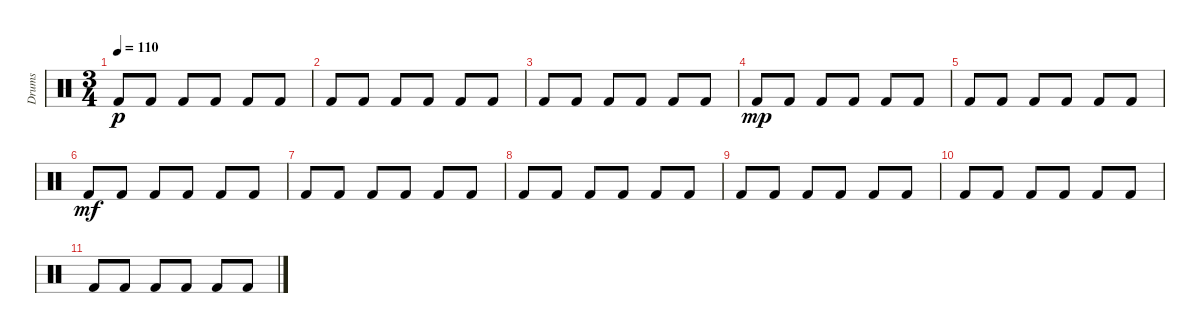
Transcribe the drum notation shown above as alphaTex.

\track ("Drums" "Drums") {instrument percussion}
\staff {score}
\articulation defaults
\ts (3 4)
\tempo 110
\clef neutral
\ks c "Kick (hit) 2".8{dy p} "Kick (hit) 2".8 "Kick (hit) 2".8 "Kick (hit) 2".8 "Kick (hit) 2".8 "Kick (hit) 2".8
|
"Kick (hit) 2".8 "Kick (hit) 2".8 "Kick (hit) 2".8 "Kick (hit) 2".8 "Kick (hit) 2".8 "Kick (hit) 2".8 |
"Kick (hit) 2".8 "Kick (hit) 2".8 "Kick (hit) 2".8 "Kick (hit) 2".8 "Kick (hit) 2".8 "Kick (hit) 2".8 |
"Kick (hit) 2".8{dy mp} "Kick (hit) 2".8 "Kick (hit) 2".8 "Kick (hit) 2".8 "Kick (hit) 2".8 "Kick (hit) 2".8 |
"Kick (hit) 2".8 "Kick (hit) 2".8 "Kick (hit) 2".8 "Kick (hit) 2".8 "Kick (hit) 2".8 "Kick (hit) 2".8 |
"Kick (hit) 2".8{dy mf} "Kick (hit) 2".8 "Kick (hit) 2".8 "Kick (hit) 2".8 "Kick (hit) 2".8 "Kick (hit) 2".8 |
"Kick (hit) 2".8 "Kick (hit) 2".8 "Kick (hit) 2".8 "Kick (hit) 2".8 "Kick (hit) 2".8 "Kick (hit) 2".8 |
"Kick (hit) 2".8 "Kick (hit) 2".8 "Kick (hit) 2".8 "Kick (hit) 2".8 "Kick (hit) 2".8 "Kick (hit) 2".8 |
"Kick (hit) 2".8 "Kick (hit) 2".8 "Kick (hit) 2".8 "Kick (hit) 2".8 "Kick (hit) 2".8 "Kick (hit) 2".8 |
"Kick (hit) 2".8 "Kick (hit) 2".8 "Kick (hit) 2".8 "Kick (hit) 2".8 "Kick (hit) 2".8 "Kick (hit) 2".8 |
"Kick (hit) 2".8 "Kick (hit) 2".8 "Kick (hit) 2".8 "Kick (hit) 2".8 "Kick (hit) 2".8 "Kick (hit) 2".8
